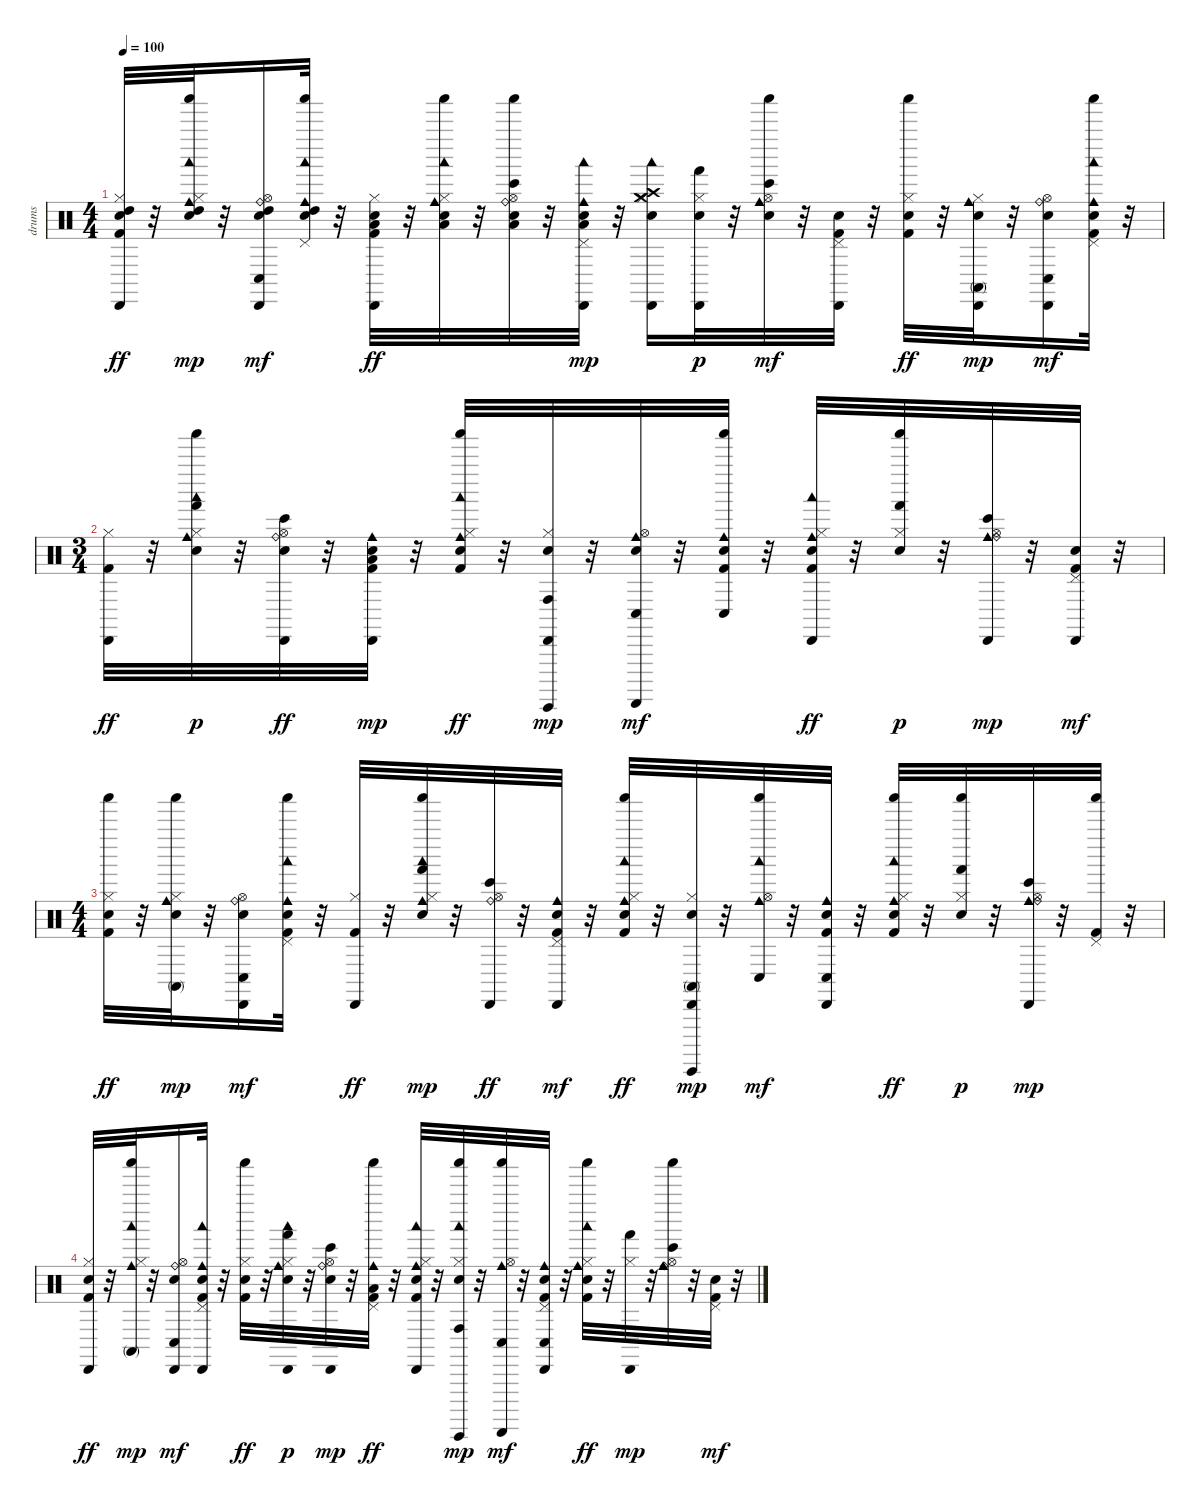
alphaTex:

\track ("drums" "drums") {instrument percussion}
\staff {score}
\articulation defaults
\ts (4 4)
\tempo 100
\clef neutral
\ks c
("High Tom (hit)" "Snare (hit) 2" "Hi-Hat (closed)" "Cabasa (hit)" "Kick (hit) 2").32{dy ff} r.32 ("High Tom (hit)" "Snare (hit) 2" "Hi-Hat (closed)" "Woodblock low (hit)" "Shaker (hit)" "Cowbell medium (hit)").32{dy mp} r.32 ("High Tom (hit)" "Snare (hit) 2" "Hi-Hat (open)" "Cabasa (hit)" "Ride (bell)" "Conga low (hit)").16{dy mf} ("High Tom (hit)" "Snare (hit) 2" "Pedal Hi-Hat (hit)" "Woodblock low (hit)" "Shaker (hit)" "Cowbell medium (hit)").32 r.32 ("Low Tom (hit)" "Snare (hit) 2" "Hi-Hat (closed)" "Cabasa (hit)" "Kick (hit) 2").32{dy ff} r.32 ("Low Tom (hit)" "Snare (hit) 2" "Hi-Hat (closed)" "Woodblock low (hit)" "Shaker (hit)" "Cowbell medium (hit)").32 r.32 ("Low Tom (hit)" "Snare (hit) 2" "Hi-Hat (open)" "Shaker (hit)" "Ride (bell)" "Bongo High (hit)").32 r.32 ("Low Tom (hit)" "Snare (hit) 2" "Pedal Hi-Hat (hit)" "Woodblock low (hit)" "Cabasa (hit)" "Cowbell medium (hit)").32{dy mp} r.32 ("Crash high (hit)" "Crash medium (hit)" "Snare (hit) 2" "Hi-Hat (closed)" "Woodblock low (hit)" "Cabasa (hit)").16 ("Snare (hit) 2" "Hi-Hat (closed)" "Cabasa (hit)" "Hand (hit)").32{dy p} r.32 ("Snare (hit) 2" "Hi-Hat (open)" "Shaker (hit)" "Cowbell medium (hit)" "Bongo High (hit)").32{dy mf} r.32 ("Snare (hit) 2" "Pedal Hi-Hat (hit)" "Cabasa (hit)" "Kick (hit) 2").32 r.32 ("Snare (hit) 2" "Hi-Hat (closed)" "Shaker (hit)" "Kick (hit) 2").32{dy ff} r.32 ("Snare (hit) 2" "Hi-Hat (closed)" "Cabasa (hit)" "Cowbell medium (hit)" "Conga high (mute)").32{dy mp} r.32 ("Snare (hit) 2" "Hi-Hat (open)" "Cabasa (hit)" "Ride (bell)" "Conga low (hit)").16{dy mf} ("Snare (hit) 2" "Pedal Hi-Hat (hit)" "Woodblock low (hit)" "Shaker (hit)" "Cowbell medium (hit)" "Kick (hit) 2").32 r.32 |
\ts (3 4)
("Hi-Hat (closed)" "Cabasa (hit)" "Kick (hit) 2").32{dy ff} r.32 ("Snare (hit) 2" "Hi-Hat (closed)" "Woodblock low (hit)" "Shaker (hit)" "Cowbell medium (hit)" "Hand (hit)").32{dy p} r.32 ("Snare (hit) 2" "Hi-Hat (open)" "Cabasa (hit)" "Ride (bell)" "Bongo High (hit)").32{dy ff} r.32 ("Snare (hit) 2" "Cabasa (hit)" "Cowbell medium (hit)" "Kick (hit) 2" "Low Tom (hit)").32{dy mp} r.32 ("Snare (hit) 2" "Hi-Hat (closed)" "Woodblock low (hit)" "Shaker (hit)" "Cowbell medium (hit)" "Kick (hit) 2").32{dy ff} r.32 ("Snare (hit) 2" "Hi-Hat (closed)" "Cabasa (hit)" "Guiro (hit)" "Conga high (hit)").32{dy mp} r.32 ("Snare (hit) 2" "Hi-Hat (open)" "Guiro (scrap-return)" "Cowbell medium (hit)" "Conga low (hit)").32{dy mf} r.32 ("Snare (hit) 2" "Shaker (hit)" "Cowbell medium (hit)" "Kick (hit) 2" "Conga low (hit)").32 r.32 ("Snare (hit) 2" "Hi-Hat (closed)" "Woodblock low (hit)" "Cabasa (hit)" "Cowbell medium (hit)" "Kick (hit) 2").32{dy ff} r.32 ("Snare (hit) 2" "Hi-Hat (closed)" "Shaker (hit)" "Hand (hit)").32{dy p} r.32 ("Hi-Hat (open)" "Cabasa (hit)" "Cowbell medium (hit)" "Ride (bell)" "Bongo High (hit)").32{dy mp} r.32 ("Snare (hit) 2" "Pedal Hi-Hat (hit)" "Cabasa (hit)" "Kick (hit) 2").32{dy mf} r.32 |
\ts (4 4)
("Snare (hit) 2" "Hi-Hat (closed)" "Shaker (hit)" "Kick (hit) 2").32{dy ff} r.32 ("Snare (hit) 2" "Hi-Hat (closed)" "Shaker (hit)" "Cowbell medium (hit)" "Conga high (mute)").32{dy mp} r.32 ("Snare (hit) 2" "Hi-Hat (open)" "Cabasa (hit)" "Ride (bell)" "Conga low (hit)").16{dy mf} ("Snare (hit) 2" "Pedal Hi-Hat (hit)" "Woodblock low (hit)" "Shaker (hit)" "Cowbell medium (hit)" "Kick (hit) 2").32 r.32 ("Hi-Hat (closed)" "Cabasa (hit)" "Kick (hit) 2").32{dy ff} r.32 ("Snare (hit) 2" "Hi-Hat (closed)" "Woodblock low (hit)" "Shaker (hit)" "Cowbell medium (hit)" "Hand (hit)").32{dy mp} r.32 ("Hi-Hat (open)" "Cabasa (hit)" "Ride (bell)" "Bongo High (hit)").32{dy ff} r.32 ("Snare (hit) 2" "Pedal Hi-Hat (hit)" "Cabasa (hit)" "Cowbell medium (hit)" "Kick (hit) 2").32{dy mf} r.32 ("Snare (hit) 2" "Hi-Hat (closed)" "Woodblock low (hit)" "Shaker (hit)" "Cowbell medium (hit)" "Kick (hit) 2").32{dy ff} r.32 ("Snare (hit) 2" "Hi-Hat (closed)" "Cabasa (hit)" "Guiro (hit)" "Conga high (mute)").32{dy mp} r.32 ("Hi-Hat (open)" "Woodblock low (hit)" "Shaker (hit)" "Cowbell medium (hit)" "Conga low (hit)").32{dy mf} r.32 ("Snare (hit) 2" "Cabasa (hit)" "Cowbell medium (hit)" "Kick (hit) 2" "Conga low (hit)").32 r.32 ("Snare (hit) 2" "Hi-Hat (closed)" "Woodblock low (hit)" "Shaker (hit)" "Cowbell medium (hit)" "Kick (hit) 2").32{dy ff} r.32 ("Snare (hit) 2" "Hi-Hat (closed)" "Shaker (hit)" "Hand (hit)").32{dy p} r.32 ("Hi-Hat (open)" "Cabasa (hit)" "Cowbell medium (hit)" "Ride (bell)" "Bongo High (hit)").32{dy mp} r.32 ("Pedal Hi-Hat (hit)" "Shaker (hit)" "Kick (hit) 2").32 r.32 |
("Snare (hit) 2" "Hi-Hat (closed)" "Cabasa (hit)" "Kick (hit) 2").32{dy ff} r.32 ("Hi-Hat (closed)" "Woodblock low (hit)" "Shaker (hit)" "Cowbell medium (hit)" "Conga high (mute)").32{dy mp} r.32 ("Snare (hit) 2" "Hi-Hat (open)" "Cabasa (hit)" "Ride (bell)" "Conga low (hit)").16{dy mf} ("Snare (hit) 2" "Pedal Hi-Hat (hit)" "Woodblock low (hit)" "Cabasa (hit)" "Cowbell medium (hit)" "Kick (hit) 2").32 r.32 ("Snare (hit) 2" "Hi-Hat (closed)" "Shaker (hit)" "Kick (hit) 2").32{dy ff} r.32 ("Snare (hit) 2" "Hi-Hat (closed)" "Woodblock low (hit)" "Cabasa (hit)" "Cowbell medium (hit)" "Hand (hit)").32{dy p} r.32 ("Snare (hit) 2" "Hi-Hat (open)" "Cabasa (hit)" "Ride (bell)" "Bongo High (hit)").32{dy mp} r.32 ("Pedal Hi-Hat (hit)" "Shaker (hit)" "Cowbell medium (hit)" "Kick (hit) 2" "Low Tom (hit)").32{dy ff} r.32 ("Snare (hit) 2" "Hi-Hat (closed)" "Woodblock low (hit)" "Cabasa (hit)" "Cowbell medium (hit)" "Kick (hit) 2").32 r.32 ("Snare (hit) 2" "Hi-Hat (closed)" "Woodblock low (hit)" "Shaker (hit)" "Guiro (hit)" "Conga high (hit)").32{dy mp} r.32 ("Hi-Hat (open)" "Shaker (hit)" "Guiro (scrap-return)" "Cowbell medium (hit)" "Conga low (hit)").32{dy mf} r.32 ("Snare (hit) 2" "Pedal Hi-Hat (hit)" "Cabasa (hit)" "Cowbell medium (hit)" "Kick (hit) 2" "Conga low (hit)").32 r.32 ("Snare (hit) 2" "Hi-Hat (closed)" "Woodblock low (hit)" "Shaker (hit)" "Cowbell medium (hit)" "Kick (hit) 2").32{dy ff} r.32 ("Hi-Hat (closed)" "Cabasa (hit)" "Hand (hit)").32{dy mp} r.32 ("Hi-Hat (open)" "Shaker (hit)" "Cowbell medium (hit)" "Ride (bell)" "Bongo High (hit)").32 r.32 ("Snare (hit) 2" "Pedal Hi-Hat (hit)" "Kick (hit) 2").32{dy mf} r.32
